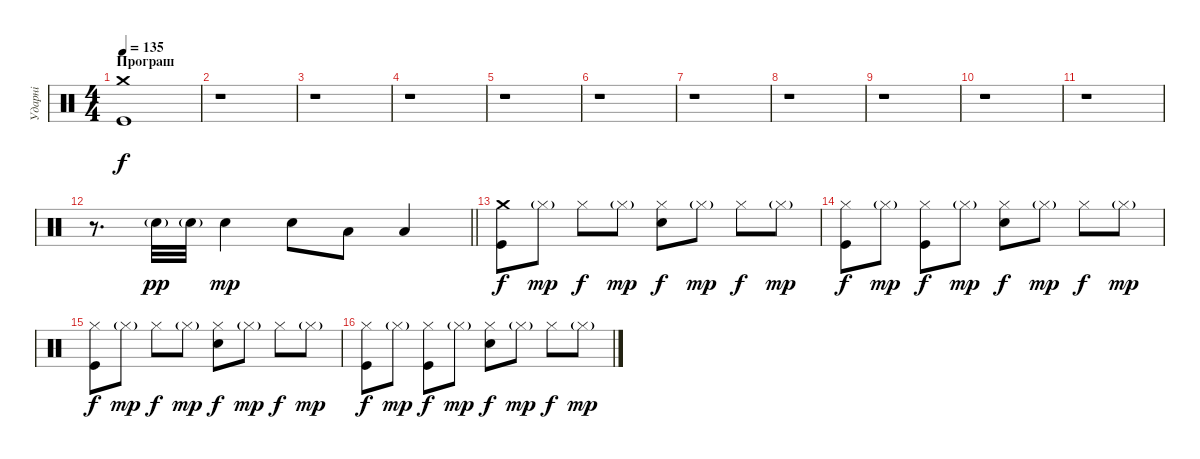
\track ("Ударні" "Ударні") {instrument percussion}
\staff {score}
\articulation defaults
\ts (4 4)
\section ("" "Програш")
\tempo 135
\clef neutral
\ks c
("Crash medium (hit)" "Kick (hit)").1{dy f} |
r.1 |
r.1 |
r.1 |
r.1 |
r.1 |
r.1 |
r.1 |
r.1 |
r.1 |
r.1 |
\barLineRight lightlight
r.8{d} "Snare (hit) 2"{g}.32{dy pp} "Snare (hit) 2"{g}.32 "Snare (hit) 2".4{dy mp} "Snare (hit) 2".8 "Low Tom (hit)".8 "Low Floor Tom (hit)".4 |
("Crash medium (hit)" "Kick (hit)").8{dy f} "Hi-Hat (closed)"{g}.8{dy mp} "Hi-Hat (closed)".8{dy f} "Hi-Hat (closed)"{g}.8{dy mp} ("Snare (hit) 2" "Hi-Hat (closed)").8{dy f} "Hi-Hat (closed)"{g}.8{dy mp} "Hi-Hat (closed)".8{dy f} "Hi-Hat (closed)"{g}.8{dy mp} |
("Hi-Hat (closed)" "Kick (hit)").8{dy f} "Hi-Hat (closed)"{g}.8{dy mp} ("Hi-Hat (closed)" "Kick (hit)").8{dy f} "Hi-Hat (closed)"{g}.8{dy mp} ("Snare (hit) 2" "Hi-Hat (closed)").8{dy f} "Hi-Hat (closed)"{g}.8{dy mp} "Hi-Hat (closed)".8{dy f} "Hi-Hat (closed)"{g}.8{dy mp} |
("Hi-Hat (closed)" "Kick (hit)").8{dy f} "Hi-Hat (closed)"{g}.8{dy mp} "Hi-Hat (closed)".8{dy f} "Hi-Hat (closed)"{g}.8{dy mp} ("Snare (hit) 2" "Hi-Hat (closed)").8{dy f} "Hi-Hat (closed)"{g}.8{dy mp} "Hi-Hat (closed)".8{dy f} "Hi-Hat (closed)"{g}.8{dy mp} |
("Hi-Hat (closed)" "Kick (hit)").8{dy f} "Hi-Hat (closed)"{g}.8{dy mp} ("Hi-Hat (closed)" "Kick (hit)").8{dy f} "Hi-Hat (closed)"{g}.8{dy mp} ("Snare (hit) 2" "Hi-Hat (closed)").8{dy f} "Hi-Hat (closed)"{g}.8{dy mp} "Hi-Hat (closed)".8{dy f} "Hi-Hat (closed)"{g}.8{dy mp}
